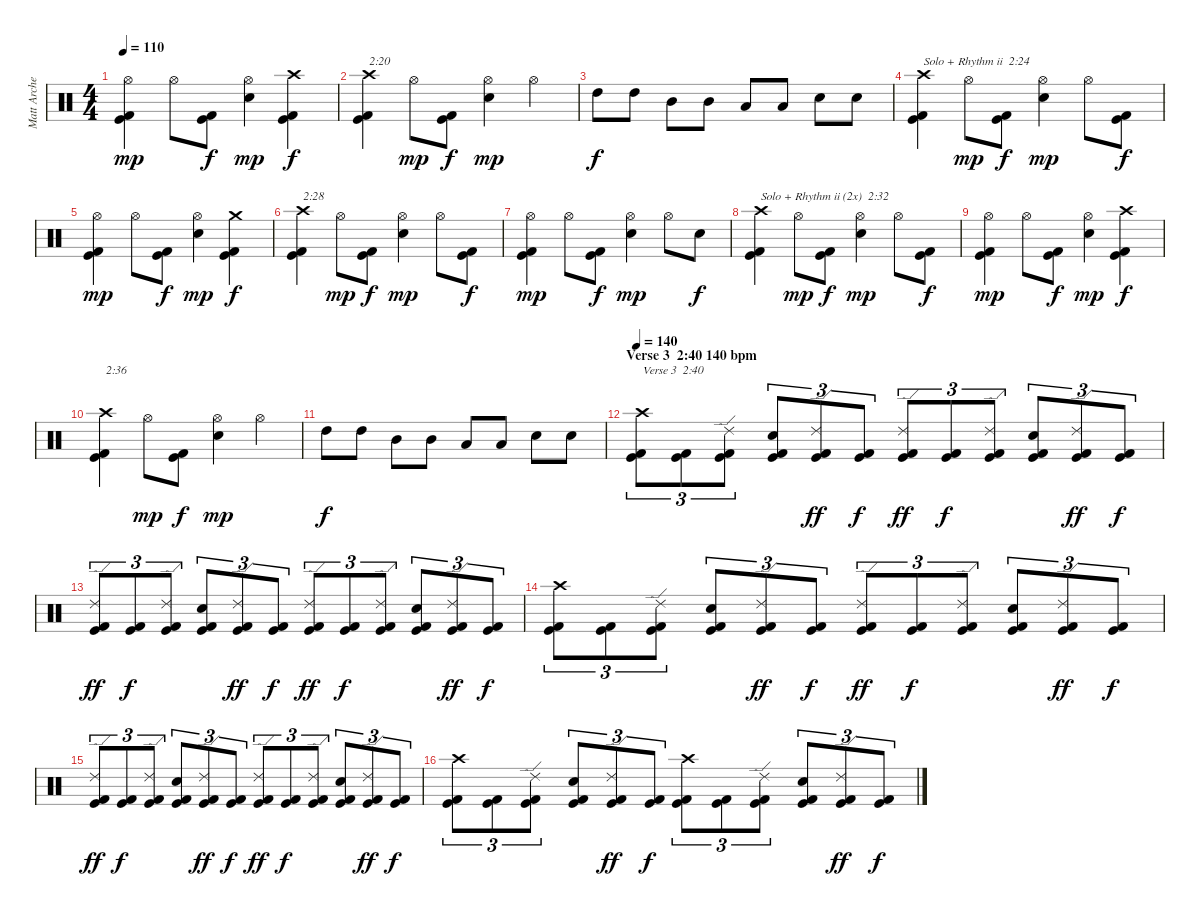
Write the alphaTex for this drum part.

\track ("Matt Archer" "Matt Arche") {instrument percussion}
\staff {score}
\articulation defaults
\ts (4 4)
\tempo 110
\clef neutral
\ks c
("Kick (hit)" "Kick (hit) 2" "Hi-Hat (open)").4{dy mp} "Hi-Hat (open)".8 ("Kick (hit)" "Kick (hit) 2").8{dy f} ("Electric Snare (hit)" "Hi-Hat (open)").4{dy mp} ("Kick (hit)" "Kick (hit) 2" "Crash high (hit)").4{dy f} |
("Kick (hit)" "Kick (hit) 2" "Crash high (hit)").4{txt "2:20"} "Hi-Hat (open)".8{dy mp} ("Kick (hit)" "Kick (hit) 2").8{dy f} ("Electric Snare (hit)" "Hi-Hat (open)").4{dy mp} "Hi-Hat (open)".4 |
"High Tom (hit)".8{dy f} "High Tom (hit)".8 "Mid Tom (hit)".8 "Mid Tom (hit)".8 "Low Tom (hit)".8 "Low Tom (hit)".8 "Electric Snare (hit)".8 "Electric Snare (hit)".8 |
("Kick (hit)" "Kick (hit) 2" "Crash high (hit)").4{txt "Solo + Rhythm ii  2:24"} "Hi-Hat (open)".8{dy mp} ("Kick (hit)" "Kick (hit) 2").8{dy f} ("Electric Snare (hit)" "Hi-Hat (open)").4{dy mp} "Hi-Hat (open)".8 ("Kick (hit)" "Kick (hit) 2").8{dy f} |
("Kick (hit)" "Kick (hit) 2" "Hi-Hat (open)").4{dy mp} "Hi-Hat (open)".8 ("Kick (hit)" "Kick (hit) 2").8{dy f} ("Electric Snare (hit)" "Hi-Hat (open)").4{dy mp} ("Kick (hit)" "Kick (hit) 2" "Crash medium (hit)").4{dy f} |
("Kick (hit)" "Kick (hit) 2" "Crash high (hit)").4{txt "2:28"} "Hi-Hat (open)".8{dy mp} ("Kick (hit)" "Kick (hit) 2").8{dy f} ("Electric Snare (hit)" "Hi-Hat (open)").4{dy mp} "Hi-Hat (open)".8 ("Kick (hit)" "Kick (hit) 2").8{dy f} |
("Kick (hit)" "Kick (hit) 2" "Hi-Hat (open)").4{dy mp} "Hi-Hat (open)".8 ("Kick (hit)" "Kick (hit) 2").8{dy f} ("Electric Snare (hit)" "Hi-Hat (open)").4{dy mp} "Hi-Hat (open)".8 "Electric Snare (hit)".8{dy f} |
("Kick (hit)" "Kick (hit) 2" "Crash high (hit)").4{txt "Solo + Rhythm ii (2x)  2:32"} "Hi-Hat (open)".8{dy mp} ("Kick (hit)" "Kick (hit) 2").8{dy f} ("Electric Snare (hit)" "Hi-Hat (open)").4{dy mp} "Hi-Hat (open)".8 ("Kick (hit)" "Kick (hit) 2").8{dy f} |
("Kick (hit)" "Kick (hit) 2" "Hi-Hat (open)").4{dy mp} "Hi-Hat (open)".8 ("Kick (hit)" "Kick (hit) 2").8{dy f} ("Electric Snare (hit)" "Hi-Hat (open)").4{dy mp} ("Kick (hit)" "Kick (hit) 2" "Crash high (hit)").4{dy f} |
("Kick (hit)" "Kick (hit) 2" "Crash high (hit)").4{txt "2:36"} "Hi-Hat (open)".8{dy mp} ("Kick (hit)" "Kick (hit) 2").8{dy f} ("Electric Snare (hit)" "Hi-Hat (open)").4{dy mp} "Hi-Hat (open)".4 |
"High Tom (hit)".8{dy f} "High Tom (hit)".8 "Mid Tom (hit)".8 "Mid Tom (hit)".8 "Low Tom (hit)".8 "Low Tom (hit)".8 "Electric Snare (hit)".8 "Electric Snare (hit)".8 |
\section ("" "Verse 3  2:40 140 bpm")
\tempo 140
("Kick (hit)" "Kick (hit) 2" "Crash high (hit)").8{tu (3 2) txt "Verse 3  2:40"} ("Kick (hit)" "Kick (hit) 2").8{tu (3 2)} ("Kick (hit)" "Kick (hit) 2" "Ride (edge) 2").8{tu (3 2)} ("Kick (hit)" "Kick (hit) 2" "Electric Snare (hit)").8{tu (3 2)} ("Kick (hit)" "Kick (hit) 2" "Ride (edge) 2").8{tu (3 2) dy ff} ("Kick (hit)" "Kick (hit) 2").8{tu (3 2) dy f} ("Kick (hit)" "Kick (hit) 2" "Ride (edge) 2").8{tu (3 2) dy ff} ("Kick (hit)" "Kick (hit) 2").8{tu (3 2) dy f} ("Kick (hit)" "Kick (hit) 2" "Ride (edge) 2").8{tu (3 2)} ("Kick (hit)" "Kick (hit) 2" "Electric Snare (hit)").8{tu (3 2)} ("Kick (hit)" "Kick (hit) 2" "Ride (edge) 2").8{tu (3 2) dy ff} ("Kick (hit)" "Kick (hit) 2").8{tu (3 2) dy f} |
("Kick (hit)" "Kick (hit) 2" "Ride (edge) 2").8{tu (3 2) dy ff} ("Kick (hit)" "Kick (hit) 2").8{tu (3 2) dy f} ("Kick (hit)" "Kick (hit) 2" "Ride (edge) 2").8{tu (3 2)} ("Kick (hit)" "Kick (hit) 2" "Electric Snare (hit)").8{tu (3 2)} ("Kick (hit)" "Kick (hit) 2" "Ride (edge) 2").8{tu (3 2) dy ff} ("Kick (hit)" "Kick (hit) 2").8{tu (3 2) dy f} ("Kick (hit)" "Kick (hit) 2" "Ride (edge) 2").8{tu (3 2) dy ff} ("Kick (hit)" "Kick (hit) 2").8{tu (3 2) dy f} ("Kick (hit)" "Kick (hit) 2" "Ride (edge) 2").8{tu (3 2)} ("Kick (hit)" "Kick (hit) 2" "Electric Snare (hit)").8{tu (3 2)} ("Kick (hit)" "Kick (hit) 2" "Ride (edge) 2").8{tu (3 2) dy ff} ("Kick (hit)" "Kick (hit) 2").8{tu (3 2) dy f} |
("Kick (hit)" "Kick (hit) 2" "Crash high (hit)").8{tu (3 2)} ("Kick (hit)" "Kick (hit) 2").8{tu (3 2)} ("Kick (hit)" "Kick (hit) 2" "Ride (edge) 2").8{tu (3 2)} ("Kick (hit)" "Kick (hit) 2" "Electric Snare (hit)").8{tu (3 2)} ("Kick (hit)" "Kick (hit) 2" "Ride (edge) 2").8{tu (3 2) dy ff} ("Kick (hit)" "Kick (hit) 2").8{tu (3 2) dy f} ("Kick (hit)" "Kick (hit) 2" "Ride (edge) 2").8{tu (3 2) dy ff} ("Kick (hit)" "Kick (hit) 2").8{tu (3 2) dy f} ("Kick (hit)" "Kick (hit) 2" "Ride (edge) 2").8{tu (3 2)} ("Kick (hit)" "Kick (hit) 2" "Electric Snare (hit)").8{tu (3 2)} ("Kick (hit)" "Kick (hit) 2" "Ride (edge) 2").8{tu (3 2) dy ff} ("Kick (hit)" "Kick (hit) 2").8{tu (3 2) dy f} |
("Kick (hit)" "Kick (hit) 2" "Ride (edge) 2").8{tu (3 2) dy ff} ("Kick (hit)" "Kick (hit) 2").8{tu (3 2) dy f} ("Kick (hit)" "Kick (hit) 2" "Ride (edge) 2").8{tu (3 2)} ("Kick (hit)" "Kick (hit) 2" "Electric Snare (hit)").8{tu (3 2)} ("Kick (hit)" "Kick (hit) 2" "Ride (edge) 2").8{tu (3 2) dy ff} ("Kick (hit)" "Kick (hit) 2").8{tu (3 2) dy f} ("Kick (hit)" "Kick (hit) 2" "Ride (edge) 2").8{tu (3 2) dy ff} ("Kick (hit)" "Kick (hit) 2").8{tu (3 2) dy f} ("Kick (hit)" "Kick (hit) 2" "Ride (edge) 2").8{tu (3 2)} ("Kick (hit)" "Kick (hit) 2" "Electric Snare (hit)").8{tu (3 2)} ("Kick (hit)" "Kick (hit) 2" "Ride (edge) 2").8{tu (3 2) dy ff} ("Kick (hit)" "Kick (hit) 2").8{tu (3 2) dy f} |
("Kick (hit)" "Kick (hit) 2" "Crash high (hit)").8{tu (3 2)} ("Kick (hit)" "Kick (hit) 2").8{tu (3 2)} ("Kick (hit)" "Kick (hit) 2" "Ride (edge) 2").8{tu (3 2)} ("Kick (hit)" "Kick (hit) 2" "Electric Snare (hit)").8{tu (3 2)} ("Kick (hit)" "Kick (hit) 2" "Ride (edge) 2").8{tu (3 2) dy ff} ("Kick (hit)" "Kick (hit) 2").8{tu (3 2) dy f} ("Kick (hit)" "Kick (hit) 2" "Crash high (hit)").8{tu (3 2)} ("Kick (hit)" "Kick (hit) 2").8{tu (3 2)} ("Kick (hit)" "Kick (hit) 2" "Ride (edge) 2").8{tu (3 2)} ("Kick (hit)" "Kick (hit) 2" "Electric Snare (hit)").8{tu (3 2)} ("Kick (hit)" "Kick (hit) 2" "Ride (edge) 2").8{tu (3 2) dy ff} ("Kick (hit)" "Kick (hit) 2").8{tu (3 2) dy f}
